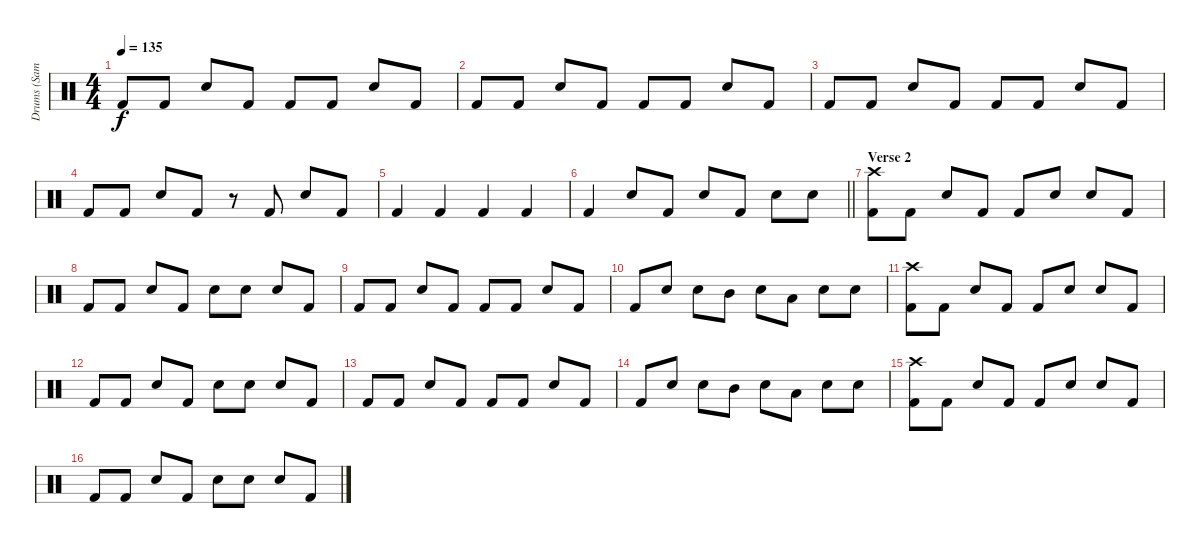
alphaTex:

\track ("Drums (Sam Fogarino)" "Drums (Sam") {instrument percussion}
\staff {score}
\articulation defaults
\ts (4 4)
\tempo 135
\clef neutral
\ks c "Kick (hit) 2".8{dy f} "Kick (hit) 2".8 "Snare (hit) 2".8 "Kick (hit) 2".8 "Kick (hit) 2".8 "Kick (hit) 2".8 "Snare (hit) 2".8 "Kick (hit) 2".8
|
"Kick (hit) 2".8 "Kick (hit) 2".8 "Snare (hit) 2".8 "Kick (hit) 2".8 "Kick (hit) 2".8 "Kick (hit) 2".8 "Snare (hit) 2".8 "Kick (hit) 2".8 |
"Kick (hit) 2".8 "Kick (hit) 2".8 "Snare (hit) 2".8 "Kick (hit) 2".8 "Kick (hit) 2".8 "Kick (hit) 2".8 "Snare (hit) 2".8 "Kick (hit) 2".8 |
"Kick (hit) 2".8 "Kick (hit) 2".8 "Snare (hit) 2".8 "Kick (hit) 2".8 r.8 "Kick (hit) 2".8 "Snare (hit) 2".8 "Kick (hit) 2".8 |
"Kick (hit) 2".4 "Kick (hit) 2".4 "Kick (hit) 2".4 "Kick (hit) 2".4 |
\barLineRight lightlight "Kick (hit) 2".4 "Snare (hit) 2".8 "Kick (hit) 2".8 "Snare (hit) 2".8 "Kick (hit) 2".8 "Snare (hit) 2".8 "Snare (hit) 2".8
|
\section ("" "Verse 2")
("Crash high (hit)" "Kick (hit) 2").8 "Kick (hit) 2".8 "Snare (hit) 2".8 "Kick (hit) 2".8 "Kick (hit) 2".8 "Snare (hit) 2".8 "Snare (hit) 2".8 "Kick (hit) 2".8 |
"Kick (hit) 2".8 "Kick (hit) 2".8 "Snare (hit) 2".8 "Kick (hit) 2".8 "Snare (hit) 2".8 "Snare (hit) 2".8 "Snare (hit) 2".8 "Kick (hit) 2".8 |
"Kick (hit) 2".8 "Kick (hit) 2".8 "Snare (hit) 2".8 "Kick (hit) 2".8 "Kick (hit) 2".8 "Kick (hit) 2".8 "Snare (hit) 2".8 "Kick (hit) 2".8 |
"Kick (hit) 2".8 "Snare (hit) 2".8 "Snare (hit) 2".8 "Mid Tom (hit)".8 "Snare (hit) 2".8 "Low Tom (hit)".8 "Snare (hit) 2".8 "Snare (hit) 2".8 |
("Crash high (hit)" "Kick (hit) 2").8 "Kick (hit) 2".8 "Snare (hit) 2".8 "Kick (hit) 2".8 "Kick (hit) 2".8 "Snare (hit) 2".8 "Snare (hit) 2".8 "Kick (hit) 2".8 |
"Kick (hit) 2".8 "Kick (hit) 2".8 "Snare (hit) 2".8 "Kick (hit) 2".8 "Snare (hit) 2".8 "Snare (hit) 2".8 "Snare (hit) 2".8 "Kick (hit) 2".8 |
"Kick (hit) 2".8 "Kick (hit) 2".8 "Snare (hit) 2".8 "Kick (hit) 2".8 "Kick (hit) 2".8 "Kick (hit) 2".8 "Snare (hit) 2".8 "Kick (hit) 2".8 |
"Kick (hit) 2".8 "Snare (hit) 2".8 "Snare (hit) 2".8 "Mid Tom (hit)".8 "Snare (hit) 2".8 "Low Tom (hit)".8 "Snare (hit) 2".8 "Snare (hit) 2".8 |
("Crash high (hit)" "Kick (hit) 2").8 "Kick (hit) 2".8 "Snare (hit) 2".8 "Kick (hit) 2".8 "Kick (hit) 2".8 "Snare (hit) 2".8 "Snare (hit) 2".8 "Kick (hit) 2".8 |
"Kick (hit) 2".8 "Kick (hit) 2".8 "Snare (hit) 2".8 "Kick (hit) 2".8 "Snare (hit) 2".8 "Snare (hit) 2".8 "Snare (hit) 2".8 "Kick (hit) 2".8
